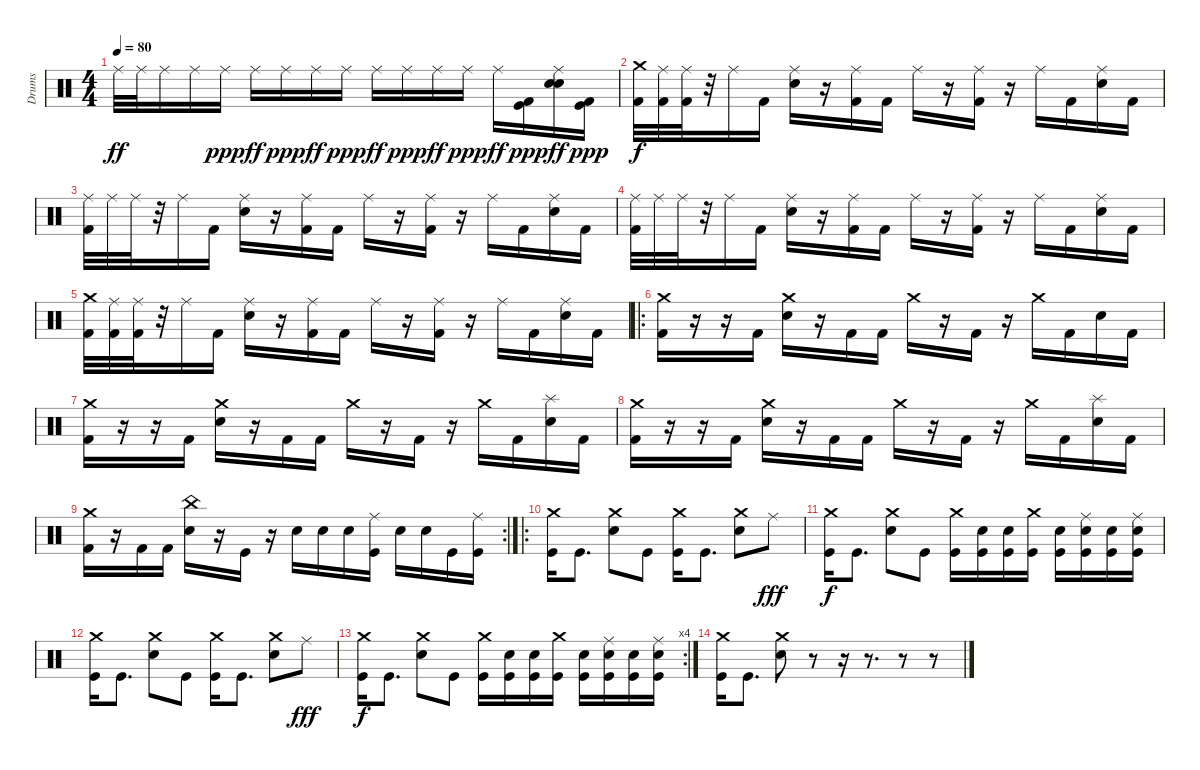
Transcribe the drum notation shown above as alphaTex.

\track ("Drums" "Drums") {instrument percussion}
\staff {score}
\articulation defaults
\ts (4 4)
\tempo 80
\clef neutral
\ks c "Ride (middle)".32{dy ff} "Ride (middle)".32 "Ride (middle)".16 "Ride (middle)".16 "Ride (middle)".16{dy ppp} "Ride (middle)".16{dy ff} "Ride (middle)".16{dy ppp} "Ride (middle)".16{dy ff} "Ride (middle)".16{dy ppp} "Ride (middle)".16{dy ff} "Ride (middle)".16{dy ppp} "Ride (middle)".16{dy ff} "Ride (middle)".16{dy ppp} "Ride (middle)".16{dy ff}
("Kick (hit) 2" "Kick (hit)").16{dy ppp} ("Ride (middle)" "Snare (hit) 2" "Snare (hit) 2").16{dy ff} ("Kick (hit) 2" "Kick (hit)").16{dy ppp} |
("Crash medium (hit)" "Kick (hit) 2").32{dy f} ("Ride (middle)" "Kick (hit) 2").32 ("Ride (middle)" "Kick (hit) 2").32 r.32 "Ride (middle)".16 "Kick (hit) 2".16 ("Ride (middle)" "Snare (hit) 2").16 r.16 ("Ride (middle)" "Kick (hit) 2").16 "Kick (hit) 2".16 "Ride (middle)".16 r.16 ("Ride (middle)" "Kick (hit) 2").16 r.16 "Ride (middle)".16 "Kick (hit) 2".16 ("Ride (middle)" "Snare (hit) 2").16 "Kick (hit) 2".16 |
("Ride (middle)" "Kick (hit) 2").32 "Ride (middle)".32 "Ride (middle)".32 r.32 "Ride (middle)".16 "Kick (hit) 2".16 ("Ride (middle)" "Snare (hit) 2").16 r.16 ("Ride (middle)" "Kick (hit) 2").16 "Kick (hit) 2".16 "Ride (middle)".16 r.16 ("Ride (middle)" "Kick (hit) 2").16 r.16 "Ride (middle)".16 "Kick (hit) 2".16 ("Ride (middle)" "Snare (hit) 2").16 "Kick (hit) 2".16 |
("Ride (middle)" "Kick (hit) 2").32 "Ride (middle)".32 "Ride (middle)".32 r.32 "Ride (middle)".16 "Kick (hit) 2".16 ("Ride (middle)" "Snare (hit) 2").16 r.16 ("Ride (middle)" "Kick (hit) 2").16 "Kick (hit) 2".16 "Ride (middle)".16 r.16 ("Ride (middle)" "Kick (hit) 2").16 r.16 "Ride (middle)".16 "Kick (hit) 2".16 ("Ride (middle)" "Snare (hit) 2").16 "Kick (hit) 2".16 |
("Crash medium (hit)" "Kick (hit) 2").32 ("Ride (middle)" "Kick (hit) 2").32 ("Ride (middle)" "Kick (hit) 2").32 r.32 "Ride (middle)".16 "Kick (hit) 2".16 ("Ride (middle)" "Snare (hit) 2").16 r.16 ("Ride (middle)" "Kick (hit) 2").16 "Kick (hit) 2".16 "Ride (middle)".16 r.16 ("Ride (middle)" "Kick (hit) 2").16 r.16 "Ride (middle)".16 "Kick (hit) 2".16 ("Ride (middle)" "Snare (hit) 2").16 "Kick (hit) 2".16 |
\ro
("Crash medium (hit)" "Kick (hit) 2").16 r.16 r.16 "Kick (hit) 2".16 ("Crash medium (hit)" "Snare (hit) 2").16 r.16 "Kick (hit) 2".16 "Kick (hit) 2".16 "Crash medium (hit)".16 r.16 "Kick (hit) 2".16 r.16 "Crash medium (hit)".16 "Kick (hit) 2".16 "Snare (hit) 2".16 "Kick (hit) 2".16 |
("Crash medium (hit)" "Kick (hit) 2").16 r.16 r.16 "Kick (hit) 2".16 ("Crash medium (hit)" "Snare (hit) 2").16 r.16 "Kick (hit) 2".16 "Kick (hit) 2".16 "Crash medium (hit)".16 r.16 "Kick (hit) 2".16 r.16 "Crash medium (hit)".16 "Kick (hit) 2".16 ("Splash (hit)" "Snare (hit) 2").16 "Kick (hit) 2".16 |
("Crash medium (hit)" "Kick (hit) 2").16 r.16 r.16 "Kick (hit) 2".16 ("Crash medium (hit)" "Snare (hit) 2").16 r.16 "Kick (hit) 2".16 "Kick (hit) 2".16 "Crash medium (hit)".16 r.16 "Kick (hit) 2".16 r.16 "Crash medium (hit)".16 "Kick (hit) 2".16 ("Splash (hit)" "Snare (hit) 2").16 "Kick (hit) 2".16 |
\rc 2
("Crash medium (hit)" "Kick (hit) 2").16 r.16 "Kick (hit) 2".16 "Kick (hit) 2".16 ("China (hit)" "Snare (hit) 2").16 r.16 "Kick (hit)".16 r.16 "Snare (hit) 2".16 "Snare (hit) 2".16 "Snare (hit) 2".16 ("Ride (middle)" "Kick (hit)").16 "Snare (hit) 2".16 "Snare (hit) 2".16 "Kick (hit)".16 ("Ride (middle)" "Kick (hit)").16 |
\ro
("Crash medium (hit)" "Kick (hit)").16 "Kick (hit)".8{d} ("Crash medium (hit)" "Snare (hit) 2").8 "Kick (hit)".8 ("Crash medium (hit)" "Kick (hit)").16 "Kick (hit)".8{d} ("Crash medium (hit)" "Snare (hit) 2").8 "Ride (middle)".8{dy fff} |
("Crash medium (hit)" "Kick (hit)").16{dy f} "Kick (hit)".8{d} ("Crash medium (hit)" "Snare (hit) 2").8 "Kick (hit)".8 ("Crash medium (hit)" "Kick (hit)").16 ("Snare (hit) 2" "Kick (hit)").16 ("Snare (hit) 2" "Kick (hit)").16 ("Crash medium (hit)" "Kick (hit)").16 ("Snare (hit) 2" "Kick (hit)").16 ("Ride (middle)" "Snare (hit) 2" "Kick (hit)").16 ("Snare (hit) 2" "Kick (hit)").16 ("Ride (middle)" "Snare (hit) 2" "Kick (hit)").16 |
("Crash medium (hit)" "Kick (hit)").16 "Kick (hit)".8{d} ("Crash medium (hit)" "Snare (hit) 2").8 "Kick (hit)".8 ("Crash medium (hit)" "Kick (hit)").16 "Kick (hit)".8{d} ("Crash medium (hit)" "Snare (hit) 2").8 "Ride (middle)".8{dy fff} |
\rc 4
("Crash medium (hit)" "Kick (hit)").16{dy f} "Kick (hit)".8{d} ("Crash medium (hit)" "Snare (hit) 2").8 "Kick (hit)".8 ("Crash medium (hit)" "Kick (hit)").16 ("Snare (hit) 2" "Kick (hit)").16 ("Snare (hit) 2" "Kick (hit)").16 ("Crash medium (hit)" "Kick (hit)").16 ("Snare (hit) 2" "Kick (hit)").16 ("Ride (middle)" "Snare (hit) 2" "Kick (hit)").16 ("Snare (hit) 2" "Kick (hit)").16 ("Ride (middle)" "Snare (hit) 2" "Kick (hit)").16 |
("Crash medium (hit)" "Kick (hit)").16 "Kick (hit)".8{d} ("Crash medium (hit)" "Snare (hit) 2").8 r.8 r.16 r.8{d} r.8 r.8
